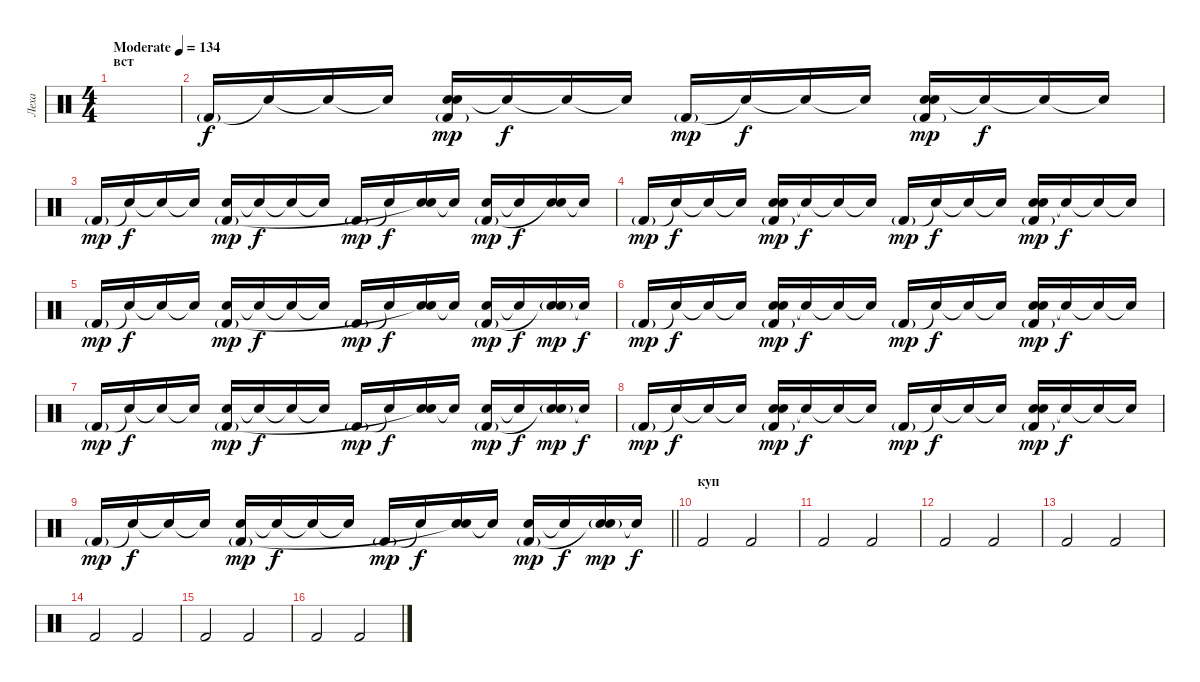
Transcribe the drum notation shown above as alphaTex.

\track ("Леха" "Леха") {instrument percussion}
\staff {score}
\articulation defaults
\ts (4 4)
\section ("" "вст")
\tempo (134 "Moderate")
\clef neutral
\ks c
|
"Kick (hit) 2"{g}.16 "Snare (hit)"{t}.16{dy f} "Snare (hit)"{t}.16 "Snare (hit)"{t}.16 ("Hand Clap (hit)" "Hand Clap (hit)" "Kick (hit) 2"{g}).16{dy mp} "Snare (hit)"{t}.16{dy f} "Snare (hit)"{t}.16 "Snare (hit)"{t}.16 "Kick (hit) 2"{g}.16{dy mp} "Snare (hit)"{t}.16{dy f} "Snare (hit)"{t}.16 "Snare (hit)"{t}.16 ("Hand Clap (hit)" "Hand Clap (hit)" "Kick (hit) 2"{g}).16{dy mp} "Snare (hit)"{t}.16{dy f} "Snare (hit)"{t}.16 "Snare (hit)"{t}.16 |
"Kick (hit) 2"{g}.16{dy mp} "Snare (hit)"{t}.16{dy f} "Snare (hit)"{t}.16 "Snare (hit)"{t}.16 ("Hand Clap (hit)" "Kick (hit) 2"{g}).16{dy mp} "Snare (hit)"{t}.16{dy f} "Snare (hit)"{t}.16 "Snare (hit)"{t}.16 "Kick (hit) 2"{g}.16{dy mp} "Snare (hit)"{t}.16{dy f} ("Hand Clap (hit)" "Snare (hit)"{t}).16 "Snare (hit)"{t}.16 ("Hand Clap (hit)" "Kick (hit) 2"{g}).16{dy mp} "Snare (hit)"{t}.16{dy f} ("Hand Clap (hit)" "Snare (hit)"{t}).16 "Snare (hit)"{t}.16 |
"Kick (hit) 2"{g}.16{dy mp} "Snare (hit)"{t}.16{dy f} "Snare (hit)"{t}.16 "Snare (hit)"{t}.16 ("Hand Clap (hit)" "Hand Clap (hit)" "Kick (hit) 2"{g}).16{dy mp} "Snare (hit)"{t}.16{dy f} "Snare (hit)"{t}.16 "Snare (hit)"{t}.16 "Kick (hit) 2"{g}.16{dy mp} "Snare (hit)"{t}.16{dy f} "Snare (hit)"{t}.16 "Snare (hit)"{t}.16 ("Hand Clap (hit)" "Hand Clap (hit)" "Kick (hit) 2"{g}).16{dy mp} "Snare (hit)"{t}.16{dy f} "Snare (hit)"{t}.16 "Snare (hit)"{t}.16 |
"Kick (hit) 2"{g}.16{dy mp} "Snare (hit)"{t}.16{dy f} "Snare (hit)"{t}.16 "Snare (hit)"{t}.16 ("Hand Clap (hit)" "Kick (hit) 2"{g}).16{dy mp} "Snare (hit)"{t}.16{dy f} "Snare (hit)"{t}.16 "Snare (hit)"{t}.16 "Kick (hit) 2"{g}.16{dy mp} "Snare (hit)"{t}.16{dy f} ("Hand Clap (hit)" "Snare (hit)"{t}).16 "Snare (hit)"{t}.16 ("Hand Clap (hit)" "Kick (hit) 2"{g}).16{dy mp} "Snare (hit)"{t}.16{dy f} ("Hand Clap (hit)"{g} "Snare (hit)"{t}).16{dy mp} "Snare (hit)"{t}.16{dy f} |
"Kick (hit) 2"{g}.16{dy mp} "Snare (hit)"{t}.16{dy f} "Snare (hit)"{t}.16 "Snare (hit)"{t}.16 ("Hand Clap (hit)" "Hand Clap (hit)" "Kick (hit) 2"{g}).16{dy mp} "Snare (hit)"{t}.16{dy f} "Snare (hit)"{t}.16 "Snare (hit)"{t}.16 "Kick (hit) 2"{g}.16{dy mp} "Snare (hit)"{t}.16{dy f} "Snare (hit)"{t}.16 "Snare (hit)"{t}.16 ("Hand Clap (hit)" "Hand Clap (hit)" "Kick (hit) 2"{g}).16{dy mp} "Snare (hit)"{t}.16{dy f} "Snare (hit)"{t}.16 "Snare (hit)"{t}.16 |
"Kick (hit) 2"{g}.16{dy mp} "Snare (hit)"{t}.16{dy f} "Snare (hit)"{t}.16 "Snare (hit)"{t}.16 ("Hand Clap (hit)" "Kick (hit) 2"{g}).16{dy mp} "Snare (hit)"{t}.16{dy f} "Snare (hit)"{t}.16 "Snare (hit)"{t}.16 "Kick (hit) 2"{g}.16{dy mp} "Snare (hit)"{t}.16{dy f} ("Hand Clap (hit)" "Snare (hit)"{t}).16 "Snare (hit)"{t}.16 ("Hand Clap (hit)" "Kick (hit) 2"{g}).16{dy mp} "Snare (hit)"{t}.16{dy f} ("Hand Clap (hit)"{g} "Snare (hit)"{t}).16{dy mp} "Snare (hit)"{t}.16{dy f} |
"Kick (hit) 2"{g}.16{dy mp} "Snare (hit)"{t}.16{dy f} "Snare (hit)"{t}.16 "Snare (hit)"{t}.16 ("Hand Clap (hit)" "Hand Clap (hit)" "Kick (hit) 2"{g}).16{dy mp} "Snare (hit)"{t}.16{dy f} "Snare (hit)"{t}.16 "Snare (hit)"{t}.16 "Kick (hit) 2"{g}.16{dy mp} "Snare (hit)"{t}.16{dy f} "Snare (hit)"{t}.16 "Snare (hit)"{t}.16 ("Hand Clap (hit)" "Hand Clap (hit)" "Kick (hit) 2"{g}).16{dy mp} "Snare (hit)"{t}.16{dy f} "Snare (hit)"{t}.16 "Snare (hit)"{t}.16 |
\barLineRight lightlight "Kick (hit) 2"{g}.16{dy mp} "Snare (hit)"{t}.16{dy f} "Snare (hit)"{t}.16 "Snare (hit)"{t}.16
("Hand Clap (hit)" "Kick (hit) 2"{g}).16{dy mp} "Snare (hit)"{t}.16{dy f} "Snare (hit)"{t}.16 "Snare (hit)"{t}.16 "Kick (hit) 2"{g}.16{dy mp} "Snare (hit)"{t}.16{dy f} ("Hand Clap (hit)" "Snare (hit)"{t}).16 "Snare (hit)"{t}.16 ("Hand Clap (hit)" "Kick (hit) 2"{g}).16{dy mp} "Snare (hit)"{t}.16{dy f} ("Hand Clap (hit)"{g} "Snare (hit)"{t}).16{dy mp} "Snare (hit)"{t}.16{dy f} |
\section ("" "куп")
"Kick (hit) 2".2 "Kick (hit) 2".2 |
"Kick (hit) 2".2 "Kick (hit) 2".2 |
"Kick (hit) 2".2 "Kick (hit) 2".2 |
"Kick (hit) 2".2 "Kick (hit) 2".2 |
"Kick (hit) 2".2 "Kick (hit) 2".2 |
"Kick (hit) 2".2 "Kick (hit) 2".2 |
"Kick (hit) 2".2 "Kick (hit) 2".2
